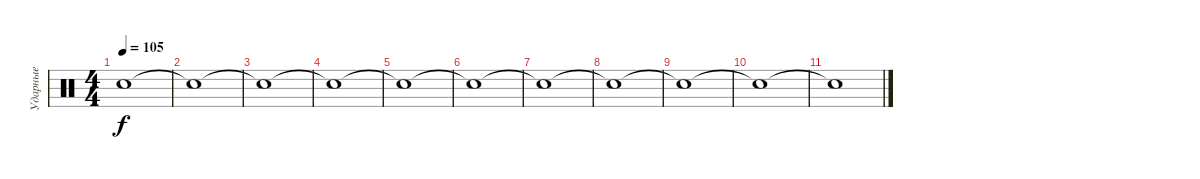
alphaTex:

\track ("Ударные" "Ударные") {instrument percussion}
\staff {score}
\articulation defaults
\ts (4 4)
\tempo 105
\clef neutral
\ks c "Snare (hit)"{t}.1{dy f}
|
"Snare (hit)"{t}.1 |
"Snare (hit)"{t}.1 |
"Snare (hit)"{t}.1 |
"Snare (hit)"{t}.1 |
"Snare (hit)"{t}.1 |
"Snare (hit)"{t}.1 |
"Snare (hit)"{t}.1 |
"Snare (hit)"{t}.1 |
"Snare (hit)"{t}.1 |
"Snare (hit)"{t}.1
